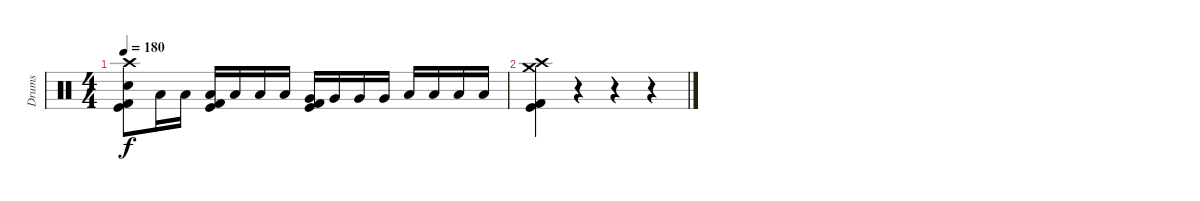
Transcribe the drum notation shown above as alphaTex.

\track ("Drums" "Drums") {instrument percussion}
\staff {score}
\articulation defaults
\ts (4 4)
\tempo 180
\clef neutral
\ks c
("Crash high (hit)" "Electric Snare (hit)" "Kick (hit)" "Kick (hit) 2").8{dy f} "Low Tom (hit)".16 "Low Tom (hit)".16 ("Low Tom (hit)" "Kick (hit)" "Kick (hit) 2").16 "Low Tom (hit)".16 "Low Tom (hit)".16 "Low Tom (hit)".16 ("Very Low Tom (hit)" "Kick (hit)" "Kick (hit) 2").16 "Very Low Tom (hit)".16 "Very Low Tom (hit)".16 "Very Low Tom (hit)".16 "Low Floor Tom (hit)".16 "Low Floor Tom (hit)".16 "Low Floor Tom (hit)".16 "Low Floor Tom (hit)".16 |
("Crash high (hit)" "Crash medium (hit)" "Kick (hit)" "Kick (hit) 2").4 r.4 r.4 r.4
